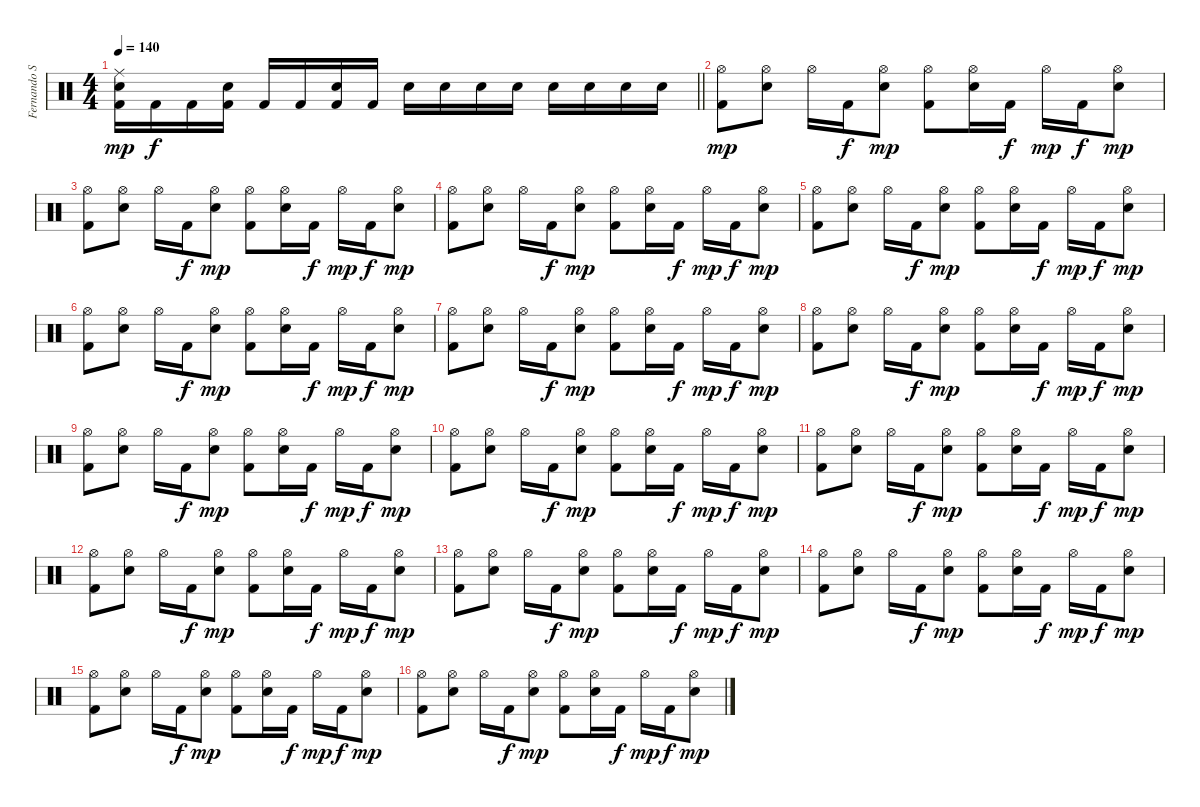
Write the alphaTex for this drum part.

\track ("Fernando Scarcella" "Fernando S") {instrument percussion}
\staff {score}
\articulation defaults
\ts (4 4)
\tempo 140
\clef neutral
\barLineRight lightlight
\ks c
("Ride (middle)" "Snare (hit) 2" "Kick (hit) 2").16{dy mp} "Kick (hit) 2".16{dy f} "Kick (hit) 2".16 ("Snare (hit) 2" "Kick (hit) 2").16 "Kick (hit) 2".16 "Kick (hit) 2".16 ("Snare (hit) 2" "Kick (hit) 2").16 "Kick (hit) 2".16 "Snare (hit) 2".16 "Snare (hit) 2".16 "Snare (hit) 2".16 "Snare (hit) 2".16 "Snare (hit) 2".16 "Snare (hit) 2".16 "Snare (hit) 2".16 "Snare (hit) 2".16 |
("Hi-Hat (open)" "Kick (hit) 2").8{dy mp} ("Hi-Hat (open)" "Snare (hit) 2").8 "Hi-Hat (open)".16 "Kick (hit) 2".16{dy f} ("Hi-Hat (open)" "Snare (hit) 2").8{dy mp} ("Hi-Hat (open)" "Kick (hit) 2").8 ("Hi-Hat (open)" "Snare (hit) 2").16 "Kick (hit) 2".16{dy f} "Hi-Hat (open)".16{dy mp} "Kick (hit) 2".16{dy f} ("Hi-Hat (open)" "Snare (hit) 2").8{dy mp} |
("Hi-Hat (open)" "Kick (hit) 2").8 ("Hi-Hat (open)" "Snare (hit) 2").8 "Hi-Hat (open)".16 "Kick (hit) 2".16{dy f} ("Hi-Hat (open)" "Snare (hit) 2").8{dy mp} ("Hi-Hat (open)" "Kick (hit) 2").8 ("Hi-Hat (open)" "Snare (hit) 2").16 "Kick (hit) 2".16{dy f} "Hi-Hat (open)".16{dy mp} "Kick (hit) 2".16{dy f} ("Hi-Hat (open)" "Snare (hit) 2").8{dy mp} |
("Hi-Hat (open)" "Kick (hit) 2").8 ("Hi-Hat (open)" "Snare (hit) 2").8 "Hi-Hat (open)".16 "Kick (hit) 2".16{dy f} ("Hi-Hat (open)" "Snare (hit) 2").8{dy mp} ("Hi-Hat (open)" "Kick (hit) 2").8 ("Hi-Hat (open)" "Snare (hit) 2").16 "Kick (hit) 2".16{dy f} "Hi-Hat (open)".16{dy mp} "Kick (hit) 2".16{dy f} ("Hi-Hat (open)" "Snare (hit) 2").8{dy mp} |
("Hi-Hat (open)" "Kick (hit) 2").8 ("Hi-Hat (open)" "Snare (hit) 2").8 "Hi-Hat (open)".16 "Kick (hit) 2".16{dy f} ("Hi-Hat (open)" "Snare (hit) 2").8{dy mp} ("Hi-Hat (open)" "Kick (hit) 2").8 ("Hi-Hat (open)" "Snare (hit) 2").16 "Kick (hit) 2".16{dy f} "Hi-Hat (open)".16{dy mp} "Kick (hit) 2".16{dy f} ("Hi-Hat (open)" "Snare (hit) 2").8{dy mp} |
("Hi-Hat (open)" "Kick (hit) 2").8 ("Hi-Hat (open)" "Snare (hit) 2").8 "Hi-Hat (open)".16 "Kick (hit) 2".16{dy f} ("Hi-Hat (open)" "Snare (hit) 2").8{dy mp} ("Hi-Hat (open)" "Kick (hit) 2").8 ("Hi-Hat (open)" "Snare (hit) 2").16 "Kick (hit) 2".16{dy f} "Hi-Hat (open)".16{dy mp} "Kick (hit) 2".16{dy f} ("Hi-Hat (open)" "Snare (hit) 2").8{dy mp} |
("Hi-Hat (open)" "Kick (hit) 2").8 ("Hi-Hat (open)" "Snare (hit) 2").8 "Hi-Hat (open)".16 "Kick (hit) 2".16{dy f} ("Hi-Hat (open)" "Snare (hit) 2").8{dy mp} ("Hi-Hat (open)" "Kick (hit) 2").8 ("Hi-Hat (open)" "Snare (hit) 2").16 "Kick (hit) 2".16{dy f} "Hi-Hat (open)".16{dy mp} "Kick (hit) 2".16{dy f} ("Hi-Hat (open)" "Snare (hit) 2").8{dy mp} |
("Hi-Hat (open)" "Kick (hit) 2").8 ("Hi-Hat (open)" "Snare (hit) 2").8 "Hi-Hat (open)".16 "Kick (hit) 2".16{dy f} ("Hi-Hat (open)" "Snare (hit) 2").8{dy mp} ("Hi-Hat (open)" "Kick (hit) 2").8 ("Hi-Hat (open)" "Snare (hit) 2").16 "Kick (hit) 2".16{dy f} "Hi-Hat (open)".16{dy mp} "Kick (hit) 2".16{dy f} ("Hi-Hat (open)" "Snare (hit) 2").8{dy mp} |
("Hi-Hat (open)" "Kick (hit) 2").8 ("Hi-Hat (open)" "Snare (hit) 2").8 "Hi-Hat (open)".16 "Kick (hit) 2".16{dy f} ("Hi-Hat (open)" "Snare (hit) 2").8{dy mp} ("Hi-Hat (open)" "Kick (hit) 2").8 ("Hi-Hat (open)" "Snare (hit) 2").16 "Kick (hit) 2".16{dy f} "Hi-Hat (open)".16{dy mp} "Kick (hit) 2".16{dy f} ("Hi-Hat (open)" "Snare (hit) 2").8{dy mp} |
("Hi-Hat (open)" "Kick (hit) 2").8 ("Hi-Hat (open)" "Snare (hit) 2").8 "Hi-Hat (open)".16 "Kick (hit) 2".16{dy f} ("Hi-Hat (open)" "Snare (hit) 2").8{dy mp} ("Hi-Hat (open)" "Kick (hit) 2").8 ("Hi-Hat (open)" "Snare (hit) 2").16 "Kick (hit) 2".16{dy f} "Hi-Hat (open)".16{dy mp} "Kick (hit) 2".16{dy f} ("Hi-Hat (open)" "Snare (hit) 2").8{dy mp} |
("Hi-Hat (open)" "Kick (hit) 2").8 ("Hi-Hat (open)" "Snare (hit) 2").8 "Hi-Hat (open)".16 "Kick (hit) 2".16{dy f} ("Hi-Hat (open)" "Snare (hit) 2").8{dy mp} ("Hi-Hat (open)" "Kick (hit) 2").8 ("Hi-Hat (open)" "Snare (hit) 2").16 "Kick (hit) 2".16{dy f} "Hi-Hat (open)".16{dy mp} "Kick (hit) 2".16{dy f} ("Hi-Hat (open)" "Snare (hit) 2").8{dy mp} |
("Hi-Hat (open)" "Kick (hit) 2").8 ("Hi-Hat (open)" "Snare (hit) 2").8 "Hi-Hat (open)".16 "Kick (hit) 2".16{dy f} ("Hi-Hat (open)" "Snare (hit) 2").8{dy mp} ("Hi-Hat (open)" "Kick (hit) 2").8 ("Hi-Hat (open)" "Snare (hit) 2").16 "Kick (hit) 2".16{dy f} "Hi-Hat (open)".16{dy mp} "Kick (hit) 2".16{dy f} ("Hi-Hat (open)" "Snare (hit) 2").8{dy mp} |
("Hi-Hat (open)" "Kick (hit) 2").8 ("Hi-Hat (open)" "Snare (hit) 2").8 "Hi-Hat (open)".16 "Kick (hit) 2".16{dy f} ("Hi-Hat (open)" "Snare (hit) 2").8{dy mp} ("Hi-Hat (open)" "Kick (hit) 2").8 ("Hi-Hat (open)" "Snare (hit) 2").16 "Kick (hit) 2".16{dy f} "Hi-Hat (open)".16{dy mp} "Kick (hit) 2".16{dy f} ("Hi-Hat (open)" "Snare (hit) 2").8{dy mp} |
("Hi-Hat (open)" "Kick (hit) 2").8 ("Hi-Hat (open)" "Snare (hit) 2").8 "Hi-Hat (open)".16 "Kick (hit) 2".16{dy f} ("Hi-Hat (open)" "Snare (hit) 2").8{dy mp} ("Hi-Hat (open)" "Kick (hit) 2").8 ("Hi-Hat (open)" "Snare (hit) 2").16 "Kick (hit) 2".16{dy f} "Hi-Hat (open)".16{dy mp} "Kick (hit) 2".16{dy f} ("Hi-Hat (open)" "Snare (hit) 2").8{dy mp} |
("Hi-Hat (open)" "Kick (hit) 2").8 ("Hi-Hat (open)" "Snare (hit) 2").8 "Hi-Hat (open)".16 "Kick (hit) 2".16{dy f} ("Hi-Hat (open)" "Snare (hit) 2").8{dy mp} ("Hi-Hat (open)" "Kick (hit) 2").8 ("Hi-Hat (open)" "Snare (hit) 2").16 "Kick (hit) 2".16{dy f} "Hi-Hat (open)".16{dy mp} "Kick (hit) 2".16{dy f} ("Hi-Hat (open)" "Snare (hit) 2").8{dy mp} |
("Hi-Hat (open)" "Kick (hit) 2").8 ("Hi-Hat (open)" "Snare (hit) 2").8 "Hi-Hat (open)".16 "Kick (hit) 2".16{dy f} ("Hi-Hat (open)" "Snare (hit) 2").8{dy mp} ("Hi-Hat (open)" "Kick (hit) 2").8 ("Hi-Hat (open)" "Snare (hit) 2").16 "Kick (hit) 2".16{dy f} "Hi-Hat (open)".16{dy mp} "Kick (hit) 2".16{dy f} ("Hi-Hat (open)" "Snare (hit) 2").8{dy mp}
